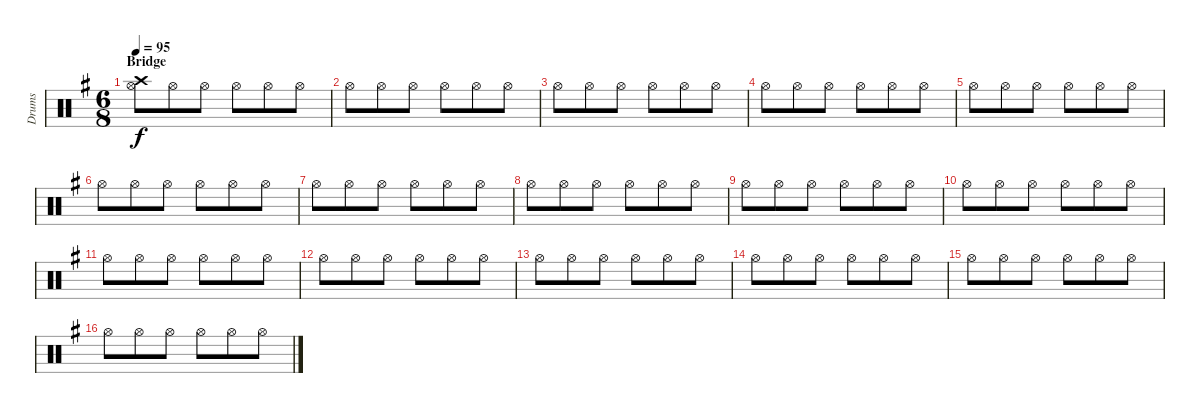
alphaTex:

\track ("Drums" "Drums") {instrument percussion}
\staff {score}
\articulation defaults
\ts (6 8)
\section ("" "Bridge")
\tempo 95
\clef neutral
\ks g
("Hi-Hat (open)" "Crash high (hit)").8{dy f} "Hi-Hat (open)".8 "Hi-Hat (open)".8 "Hi-Hat (open)".8 "Hi-Hat (open)".8 "Hi-Hat (open)".8 |
"Hi-Hat (open)".8 "Hi-Hat (open)".8 "Hi-Hat (open)".8 "Hi-Hat (open)".8 "Hi-Hat (open)".8 "Hi-Hat (open)".8 |
"Hi-Hat (open)".8 "Hi-Hat (open)".8 "Hi-Hat (open)".8 "Hi-Hat (open)".8 "Hi-Hat (open)".8 "Hi-Hat (open)".8 |
"Hi-Hat (open)".8 "Hi-Hat (open)".8 "Hi-Hat (open)".8 "Hi-Hat (open)".8 "Hi-Hat (open)".8 "Hi-Hat (open)".8 |
"Hi-Hat (open)".8 "Hi-Hat (open)".8 "Hi-Hat (open)".8 "Hi-Hat (open)".8 "Hi-Hat (open)".8 "Hi-Hat (open)".8 |
"Hi-Hat (open)".8 "Hi-Hat (open)".8 "Hi-Hat (open)".8 "Hi-Hat (open)".8 "Hi-Hat (open)".8 "Hi-Hat (open)".8 |
"Hi-Hat (open)".8 "Hi-Hat (open)".8 "Hi-Hat (open)".8 "Hi-Hat (open)".8 "Hi-Hat (open)".8 "Hi-Hat (open)".8 |
"Hi-Hat (open)".8 "Hi-Hat (open)".8 "Hi-Hat (open)".8 "Hi-Hat (open)".8 "Hi-Hat (open)".8 "Hi-Hat (open)".8 |
"Hi-Hat (open)".8 "Hi-Hat (open)".8 "Hi-Hat (open)".8 "Hi-Hat (open)".8 "Hi-Hat (open)".8 "Hi-Hat (open)".8 |
"Hi-Hat (open)".8 "Hi-Hat (open)".8 "Hi-Hat (open)".8 "Hi-Hat (open)".8 "Hi-Hat (open)".8 "Hi-Hat (open)".8 |
"Hi-Hat (open)".8 "Hi-Hat (open)".8 "Hi-Hat (open)".8 "Hi-Hat (open)".8 "Hi-Hat (open)".8 "Hi-Hat (open)".8 |
"Hi-Hat (open)".8 "Hi-Hat (open)".8 "Hi-Hat (open)".8 "Hi-Hat (open)".8 "Hi-Hat (open)".8 "Hi-Hat (open)".8 |
"Hi-Hat (open)".8 "Hi-Hat (open)".8 "Hi-Hat (open)".8 "Hi-Hat (open)".8 "Hi-Hat (open)".8 "Hi-Hat (open)".8 |
"Hi-Hat (open)".8 "Hi-Hat (open)".8 "Hi-Hat (open)".8 "Hi-Hat (open)".8 "Hi-Hat (open)".8 "Hi-Hat (open)".8 |
"Hi-Hat (open)".8 "Hi-Hat (open)".8 "Hi-Hat (open)".8 "Hi-Hat (open)".8 "Hi-Hat (open)".8 "Hi-Hat (open)".8 |
"Hi-Hat (open)".8 "Hi-Hat (open)".8 "Hi-Hat (open)".8 "Hi-Hat (open)".8 "Hi-Hat (open)".8 "Hi-Hat (open)".8
